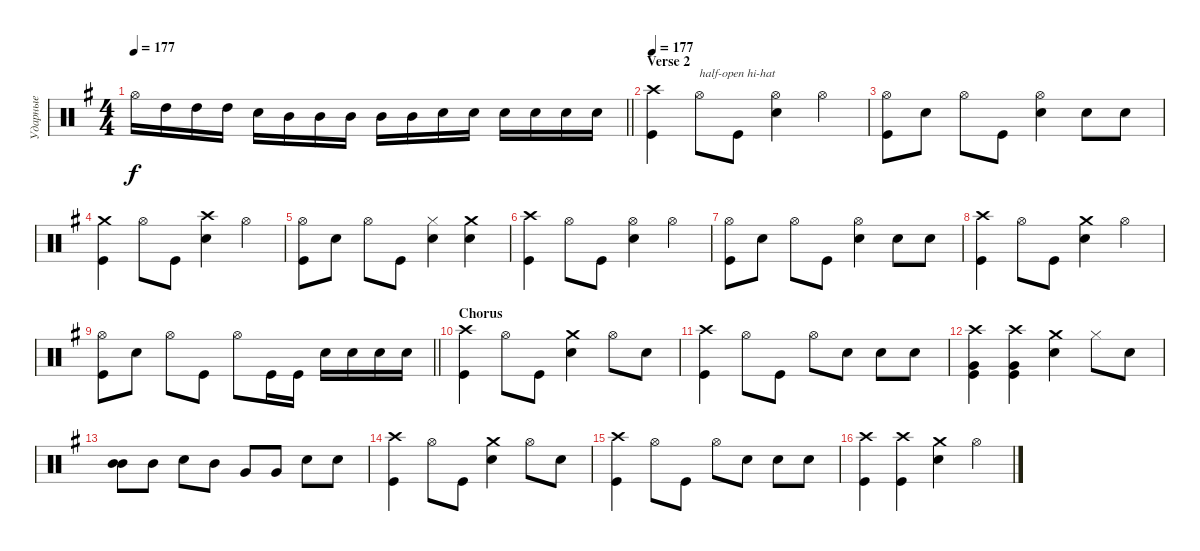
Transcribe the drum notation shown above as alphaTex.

\track ("Ударные" "Ударные") {instrument percussion}
\staff {score}
\articulation defaults
\ts (4 4)
\tempo 177
\clef neutral
\barLineRight lightlight
\ks eminor "Hi-Hat (open)".16{dy f} "High Tom (hit)".16 "High Tom (hit)".16 "High Tom (hit)".16 "Snare (hit) 2".16 "Mid Tom (hit)".16 "Mid Tom (hit)".16 "Mid Tom (hit)".16 "Mid Tom (hit)".16 "Mid Tom (hit)".16 "Snare (hit) 2".16 "Snare (hit) 2".16 "Snare (hit) 2".16 "Snare (hit) 2".16 "Snare (hit) 2".16 "Snare (hit) 2".16
|
\section ("" "Verse 2")
\tempo 177
("Crash high (hit)" "Kick (hit)").4 "Hi-Hat (open)".8{txt "half-open hi-hat"} "Kick (hit)".8 ("Snare (hit) 2" "Hi-Hat (open)").4 "Hi-Hat (open)".4 |
("Kick (hit)" "Hi-Hat (open)").8 "Snare (hit) 2".8 "Hi-Hat (open)".8 "Kick (hit)".8 ("Snare (hit) 2" "Hi-Hat (open)").4 "Snare (hit) 2".8 "Snare (hit) 2".8 |
("Crash medium (hit)" "Kick (hit)").4 "Hi-Hat (open)".8 "Kick (hit)".8 ("Snare (hit) 2" "Crash high (hit)").4 "Hi-Hat (open)".4 |
("Kick (hit)" "Hi-Hat (open)").8 "Snare (hit) 2".8 "Hi-Hat (open)".8 "Kick (hit)".8 ("Snare (hit) 2" "Hi-Hat (closed)").4 ("Snare (hit) 2" "Crash medium (hit)").4 |
("Crash high (hit)" "Kick (hit)").4 "Hi-Hat (open)".8 "Kick (hit)".8 ("Snare (hit) 2" "Hi-Hat (open)").4 "Hi-Hat (open)".4 |
("Kick (hit)" "Hi-Hat (open)").8 "Snare (hit) 2".8 "Hi-Hat (open)".8 "Kick (hit)".8 ("Snare (hit) 2" "Hi-Hat (open)").4 "Snare (hit) 2".8 "Snare (hit) 2".8 |
("Crash high (hit)" "Kick (hit)").4 "Hi-Hat (open)".8 "Kick (hit)".8 ("Snare (hit) 2" "Crash medium (hit)").4 "Hi-Hat (open)".4 |
\barLineRight lightlight
("Kick (hit)" "Hi-Hat (open)").8 "Snare (hit) 2".8 "Hi-Hat (open)".8 "Kick (hit)".8 "Hi-Hat (open)".8 "Kick (hit)".16 "Kick (hit)".16 "Snare (hit) 2".16 "Snare (hit) 2".16 "Snare (hit) 2".16 "Snare (hit) 2".16 |
\section ("" "Chorus")
("Kick (hit)" "Crash high (hit)").4 "Hi-Hat (open)".8 "Kick (hit)".8 ("Snare (hit) 2" "Crash medium (hit)").4 "Hi-Hat (open)".8 "Snare (hit) 2".8 |
("Kick (hit)" "Crash high (hit)").4 "Hi-Hat (open)".8 "Kick (hit)".8 "Hi-Hat (open)".8 "Snare (hit) 2".8 "Snare (hit) 2".8 "Snare (hit) 2".8 |
("Kick (hit)" "Crash high (hit)" "Very Low Tom (hit)").4 ("Kick (hit)" "Crash high (hit)" "Very Low Tom (hit)").4 ("Snare (hit) 2" "Crash medium (hit)").4 "Hi-Hat (closed)".8 "Snare (hit) 2".8 |
("Mid Tom (hit)" "Mid Tom (hit)").8{bd 240} "Mid Tom (hit)".8 "Snare (hit) 2".8 "Mid Tom (hit)".8 "Very Low Tom (hit)".8 "Very Low Tom (hit)".8 "Snare (hit) 2".8 "Snare (hit) 2".8 |
("Kick (hit)" "Crash high (hit)").4 "Hi-Hat (open)".8 "Kick (hit)".8 ("Snare (hit) 2" "Crash medium (hit)").4 "Hi-Hat (open)".8 "Snare (hit) 2".8 |
("Kick (hit)" "Crash high (hit)").4 "Hi-Hat (open)".8 "Kick (hit)".8 "Hi-Hat (open)".8 "Snare (hit) 2".8 "Snare (hit) 2".8 "Snare (hit) 2".8 |
("Kick (hit)" "Crash high (hit)").4 ("Kick (hit)" "Crash high (hit)").4 ("Snare (hit) 2" "Crash medium (hit)").4 "Hi-Hat (open)".4
